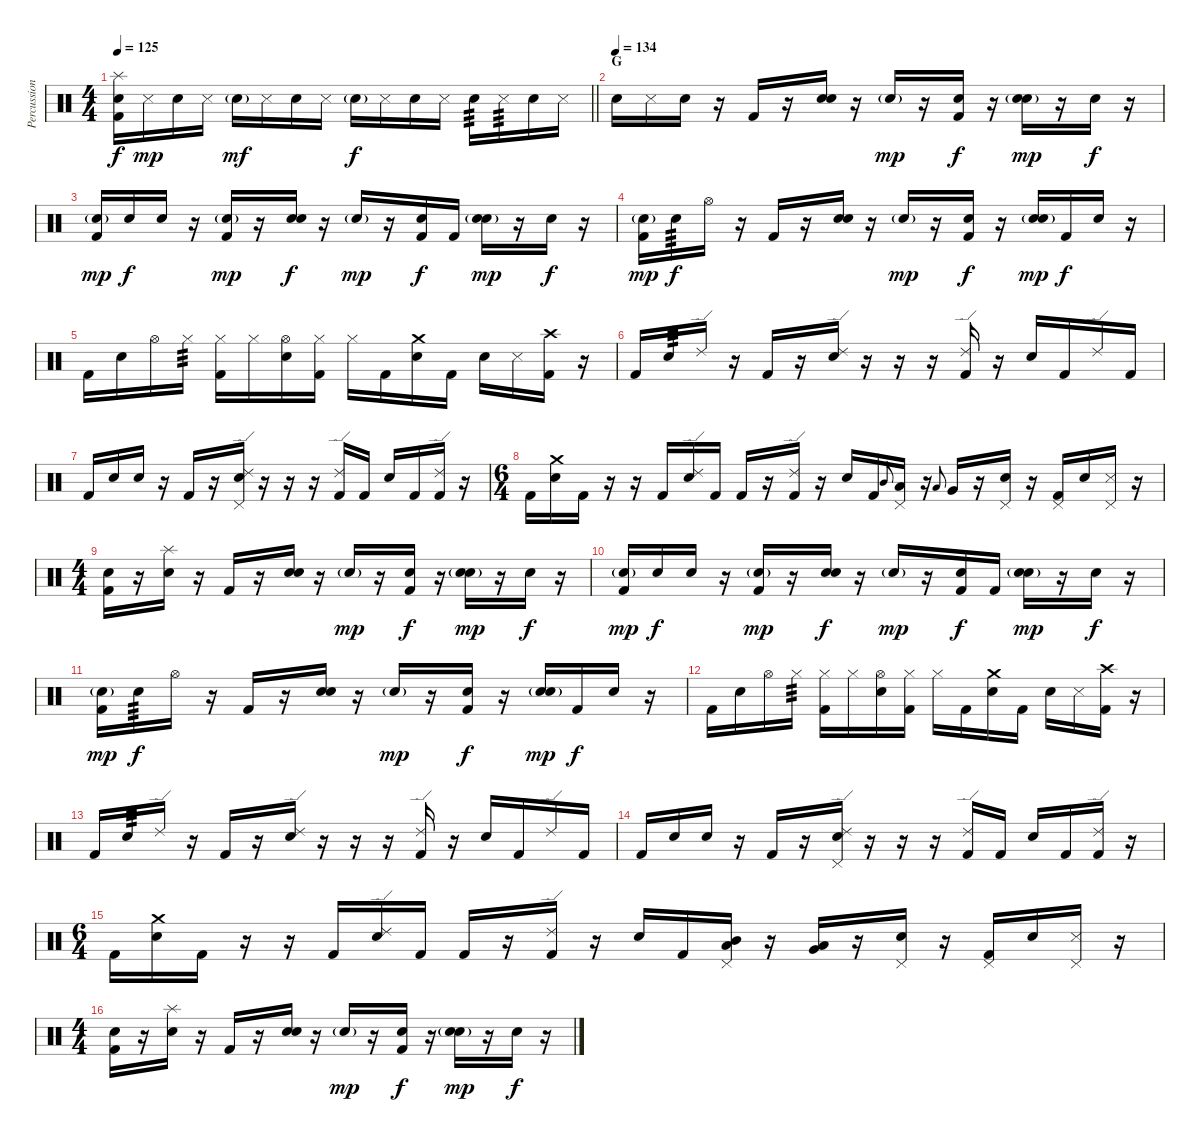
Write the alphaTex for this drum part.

\track ("Percussion" "Percussion") {instrument percussion}
\staff {score}
\articulation defaults
\ts (4 4)
\tempo 125
\clef neutral
\barLineRight lightlight
\ks c
("Splash (hit)" "Snare (hit) 2" "Kick (hit) 2").16{dy f} "Metronome (hit)".16{dy mp} "Snare (hit) 2".16 "Metronome (hit)".16 "Snare (hit) 2"{g}.16{dy mf} "Metronome (hit)".16 "Snare (hit) 2".16 "Metronome (hit)".16 "Snare (hit) 2"{g}.16{dy f} "Metronome (hit)".16 "Snare (hit) 2".16 "Metronome (hit)".16 "Snare (hit) 2".16{tp 3} "Metronome (hit)".16{tp 3} "Snare (hit) 2".16 "Metronome (hit)".16 |
\section ("" "G")
\tempo (134)
"Snare (hit) 2".16 "Metronome (hit)".16 "Snare (hit)".16 r.16 "Kick (hit) 2".16 r.16 ("Snare (hit)" "Snare (hit) 2").16 r.16 "Snare (hit)"{g}.16{dy mp} r.16 ("Snare (hit)" "Kick (hit) 2").16{dy f} r.16 ("Snare (hit)"{g} "Snare (hit) 2").16{dy mp} r.16 "Snare (hit)".16{dy f} r.16 |
("Snare (hit)"{g} "Kick (hit) 2").16{dy mp} "Snare (hit) 2".16{dy f} "Snare (hit)".16 r.16 ("Snare (hit)"{g} "Kick (hit) 2").16{dy mp} r.16 ("Snare (hit)" "Snare (hit) 2").16{dy f} r.16 "Snare (hit)"{g}.16{dy mp} r.16 ("Snare (hit)" "Kick (hit) 2").16{dy f} "Kick (hit) 2".16 ("Snare (hit)"{g} "Snare (hit) 2").16{dy mp} r.16 "Snare (hit)".16{dy f} r.16 |
("Snare (hit)"{g} "Kick (hit) 2").16{dy mp} "Snare (hit) 2".16{tp 3 dy f} "Hi-Hat (open)".16 r.16 "Kick (hit) 2".16 r.16 ("Snare (hit)" "Snare (hit) 2").16 r.16 "Snare (hit)"{g}.16{dy mp} r.16 ("Snare (hit)" "Kick (hit) 2").16{dy f} r.16 ("Snare (hit)"{g} "Snare (hit) 2").16{dy mp} "Kick (hit) 2".16{dy f} "Snare (hit)".16 r.16 |
"Kick (hit) 2".16 "Snare (hit) 2".16 "Hi-Hat (open)".16 "Hi-Hat (closed)".16{tp 3} ("Hi-Hat (closed)" "Kick (hit) 2").16 "Hi-Hat (closed)".16 ("Hi-Hat (open)" "Snare (hit) 2").16 ("Hi-Hat (closed)" "Kick (hit) 2").16 "Hi-Hat (closed)".16 "Kick (hit) 2".16 ("Crash medium (hit)" "Snare (hit) 2").16 "Kick (hit) 2".16 "Snare (hit) 2".16 "Metronome (hit)".16 ("Crash high (hit)" "Kick (hit) 2").16 r.16 |
"Kick (hit) 2".16 "Snare (hit) 2".16{tp 3} "Ride (edge) 2".16 r.16 "Kick (hit) 2".16 r.16 ("Ride (edge) 2" "Snare (hit) 2").16 r.16 r.16 r.16 ("Ride (edge) 2" "Kick (hit) 2").16 r.16 "Snare (hit) 2".16 "Kick (hit) 2".16 "Ride (edge) 2".16 "Kick (hit) 2".16 |
"Kick (hit) 2".16 "Snare (hit) 2".16 "Snare (hit)".16 r.16 "Kick (hit) 2".16 r.16 ("Ride (edge) 2" "Pedal Hi-Hat (hit)" "Snare (hit) 2").16 r.16 r.16 r.16 ("Ride (edge) 2" "Kick (hit) 2").16 "Kick (hit) 2".16 "Snare (hit) 2".16 "Kick (hit) 2".16 ("Ride (edge) 2" "Kick (hit) 2").16 r.16 |
\ts (6 4)
"Kick (hit) 2".16 ("Crash medium (hit)" "Snare (hit) 2").16 "Kick (hit) 2".16 r.16 r.16 "Kick (hit) 2".16 ("Ride (edge) 2" "Snare (hit) 2").16 "Kick (hit) 2".16 "Kick (hit) 2".16 r.16 ("Ride (edge) 2" "Kick (hit) 2").16 r.16 "Snare (hit) 2".16 "Kick (hit) 2".16 "Mid Tom (hit)".8{gr onbeat} ("Pedal Hi-Hat (hit)" "Low Tom (hit)").16 r.16 "Low Tom (hit)".8{gr onbeat} "Very Low Tom (hit)".16 r.16 ("Pedal Hi-Hat (hit)" "Snare (hit) 2").16 r.16 ("Pedal Hi-Hat (hit)" "Kick (hit) 2").16 "Snare (hit) 2".16 ("Pedal Hi-Hat (hit)" "Metronome (hit)").16 r.16 |
\ts (4 4)
("Snare (hit)" "Kick (hit) 2").16 r.16 ("Splash (hit)" "Snare (hit) 2").16 r.16 "Kick (hit) 2".16 r.16 ("Snare (hit)" "Snare (hit) 2").16 r.16 "Snare (hit)"{g}.16{dy mp} r.16 ("Snare (hit)" "Kick (hit) 2").16{dy f} r.16 ("Snare (hit)"{g} "Snare (hit) 2").16{dy mp} r.16 "Snare (hit)".16{dy f} r.16 |
("Snare (hit)"{g} "Kick (hit) 2").16{dy mp} "Snare (hit) 2".16{dy f} "Snare (hit)".16 r.16 ("Snare (hit)"{g} "Kick (hit) 2").16{dy mp} r.16 ("Snare (hit)" "Snare (hit) 2").16{dy f} r.16 "Snare (hit)"{g}.16{dy mp} r.16 ("Snare (hit)" "Kick (hit) 2").16{dy f} "Kick (hit) 2".16 ("Snare (hit)"{g} "Snare (hit) 2").16{dy mp} r.16 "Snare (hit)".16{dy f} r.16 |
("Snare (hit)"{g} "Kick (hit) 2").16{dy mp} "Snare (hit) 2".16{tp 3 dy f} "Hi-Hat (open)".16 r.16 "Kick (hit) 2".16 r.16 ("Snare (hit)" "Snare (hit) 2").16 r.16 "Snare (hit)"{g}.16{dy mp} r.16 ("Snare (hit)" "Kick (hit) 2").16{dy f} r.16 ("Snare (hit)"{g} "Snare (hit) 2").16{dy mp} "Kick (hit) 2".16{dy f} "Snare (hit)".16 r.16 |
"Kick (hit) 2".16 "Snare (hit) 2".16 "Hi-Hat (open)".16 "Hi-Hat (closed)".16{tp 3} ("Hi-Hat (closed)" "Kick (hit) 2").16 "Hi-Hat (closed)".16 ("Hi-Hat (open)" "Snare (hit) 2").16 ("Hi-Hat (closed)" "Kick (hit) 2").16 "Hi-Hat (closed)".16 "Kick (hit) 2".16 ("Crash medium (hit)" "Snare (hit) 2").16 "Kick (hit) 2".16 "Snare (hit) 2".16 "Metronome (hit)".16 ("Crash high (hit)" "Kick (hit) 2").16 r.16 |
"Kick (hit) 2".16 "Snare (hit) 2".16{tp 3} "Ride (edge) 2".16 r.16 "Kick (hit) 2".16 r.16 ("Ride (edge) 2" "Snare (hit) 2").16 r.16 r.16 r.16 ("Ride (edge) 2" "Kick (hit) 2").16 r.16 "Snare (hit) 2".16 "Kick (hit) 2".16 "Ride (edge) 2".16 "Kick (hit) 2".16 |
"Kick (hit) 2".16 "Snare (hit) 2".16 "Snare (hit)".16 r.16 "Kick (hit) 2".16 r.16 ("Ride (edge) 2" "Pedal Hi-Hat (hit)" "Snare (hit) 2").16 r.16 r.16 r.16 ("Ride (edge) 2" "Kick (hit) 2").16 "Kick (hit) 2".16 "Snare (hit) 2".16 "Kick (hit) 2".16 ("Ride (edge) 2" "Kick (hit) 2").16 r.16 |
\ts (6 4)
"Kick (hit) 2".16 ("Crash medium (hit)" "Snare (hit) 2").16 "Kick (hit) 2".16 r.16 r.16 "Kick (hit) 2".16 ("Ride (edge) 2" "Snare (hit) 2").16 "Kick (hit) 2".16 "Kick (hit) 2".16 r.16 ("Ride (edge) 2" "Kick (hit) 2").16 r.16 "Snare (hit) 2".16 "Kick (hit) 2".16 ("Pedal Hi-Hat (hit)" "Mid Tom (hit)" "Low Tom (hit)").16 r.16 ("Low Tom (hit)" "Very Low Tom (hit)").16 r.16 ("Pedal Hi-Hat (hit)" "Snare (hit) 2").16 r.16 ("Pedal Hi-Hat (hit)" "Kick (hit) 2").16 "Snare (hit) 2".16 ("Pedal Hi-Hat (hit)" "Metronome (hit)").16 r.16 |
\ts (4 4)
("Snare (hit)" "Kick (hit) 2").16 r.16 ("Splash (hit)" "Snare (hit) 2").16 r.16 "Kick (hit) 2".16 r.16 ("Snare (hit)" "Snare (hit) 2").16 r.16 "Snare (hit)"{g}.16{dy mp} r.16 ("Snare (hit)" "Kick (hit) 2").16{dy f} r.16 ("Snare (hit)"{g} "Snare (hit) 2").16{dy mp} r.16 "Snare (hit)".16{dy f} r.16
